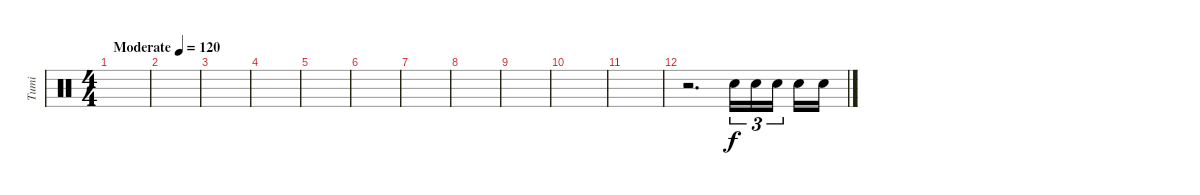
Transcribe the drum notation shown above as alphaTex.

\track ("Tumi" "Tumi") {instrument percussion}
\staff {score}
\articulation defaults
\ts (4 4)
\tempo (120 "Moderate")
\clef neutral
\ks c
|
|
|
|
|
|
|
|
|
|
|
r.2{d} "Electric Snare (hit)".16{tu (3 2)} "Electric Snare (hit)".16{tu (3 2)} "Electric Snare (hit)".16{tu (3 2) beam splitsecondary} "Electric Snare (hit)".16 "Electric Snare (hit)".16
